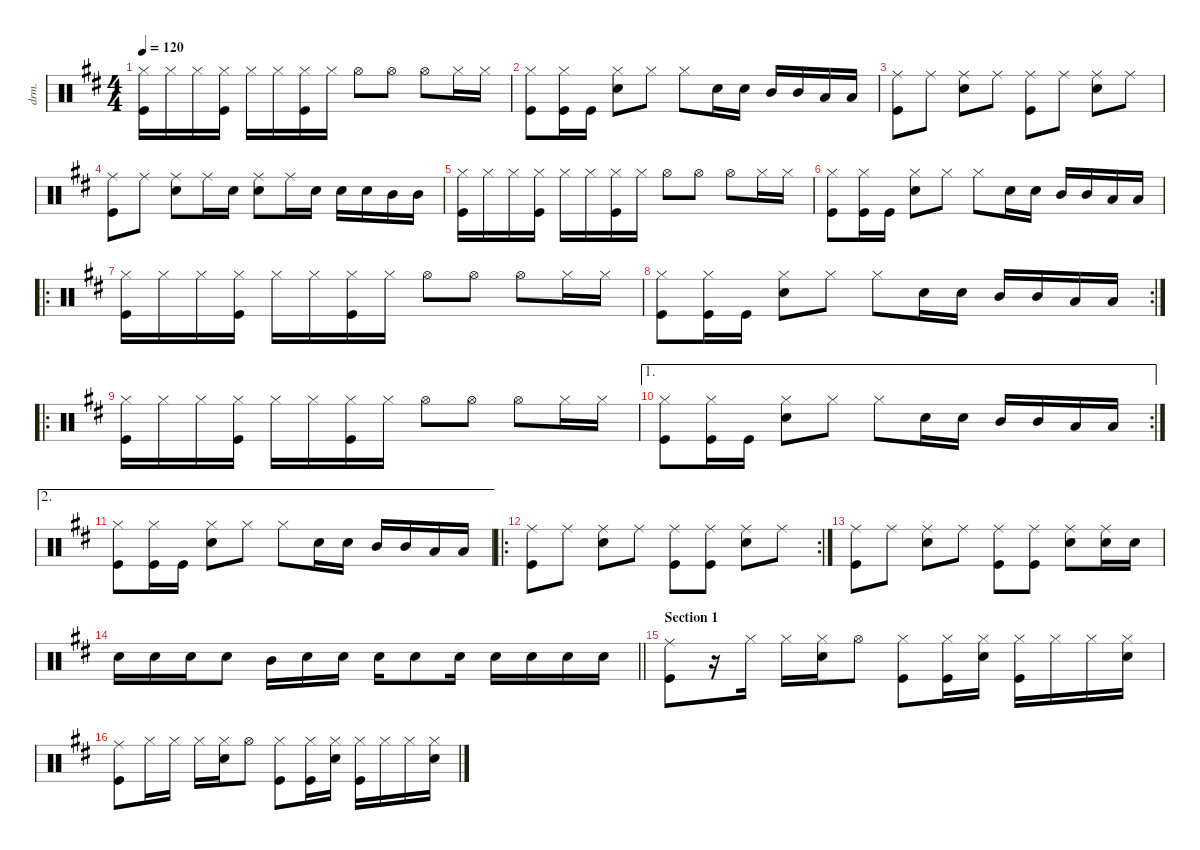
\defaultSystemsLayout 4
\hideDynamics
\bracketExtendMode nobrackets
\otherSystemsTrackNameOrientation horizontal
\track ("Drums" "drm.") {instrument percussion}
\staff {score}
\articulation defaults
\ts (4 4)
\tempo 120
\clef neutral
\ks d
("Hi-Hat (closed)"{acc forcenatural} "Kick (hit)"{acc forcenatural}).16{dy f} "Hi-Hat (closed)"{acc forcenatural}.16 "Hi-Hat (closed)"{acc forcenatural}.16 ("Hi-Hat (closed)"{acc forcenatural} "Kick (hit)"{acc forcenatural}).16 "Hi-Hat (closed)"{acc forcenatural}.16 "Hi-Hat (closed)"{acc forcenatural}.16 ("Hi-Hat (closed)"{acc forcenatural} "Kick (hit)"{acc forcenatural}).16 "Hi-Hat (closed)"{acc forcenatural}.16 "Hi-Hat (open)"{acc forcenatural}.8 "Hi-Hat (open)"{acc forcenatural}.8 "Hi-Hat (open)"{acc forcenatural}.8 "Hi-Hat (closed)"{acc forcenatural}.16 "Hi-Hat (closed)"{acc forcenatural}.16 |
("Hi-Hat (closed)"{acc forcenatural} "Kick (hit)"{acc forcenatural}).8 ("Hi-Hat (closed)"{acc forcenatural} "Kick (hit)"{acc forcenatural}).16 "Kick (hit)"{acc forcenatural}.16 ("Hi-Hat (closed)"{acc forcenatural} "Snare (hit) 2"{acc forcenatural}).8 "Hi-Hat (closed)"{acc forcenatural}.8 "Hi-Hat (closed)"{acc forcenatural}.8 "Snare (hit) 2"{acc forcenatural}.16 "Snare (hit) 2"{acc forcenatural}.16 "Mid Tom (hit)"{acc forcenatural}.16 "Mid Tom (hit)"{acc forcenatural}.16 "Low Tom (hit)"{acc forcenatural}.16 "Low Tom (hit)"{acc forcenatural}.16 |
("Ride (middle)"{acc forcenatural} "Kick (hit)"{acc forcenatural}).8 "Ride (middle)"{acc forcenatural}.8 ("Ride (middle)"{acc forcenatural} "Snare (hit) 2"{acc forcenatural}).8 "Ride (middle)"{acc forcenatural}.8 ("Ride (middle)"{acc forcenatural} "Kick (hit)"{acc forcenatural}).8 "Ride (middle)"{acc forcenatural}.8 ("Ride (middle)"{acc forcenatural} "Snare (hit) 2"{acc forcenatural}).8 "Ride (middle)"{acc forcenatural}.8 |
("Ride (middle)"{acc forcenatural} "Kick (hit)"{acc forcenatural}).8 "Ride (middle)"{acc forcenatural}.8 ("Ride (middle)"{acc forcenatural} "Snare (hit) 2"{acc forcenatural}).8 "Ride (middle)"{acc forcenatural}.16 "Snare (hit) 2"{acc forcenatural}.16 ("Ride (middle)"{acc forcenatural} "Snare (hit) 2"{acc forcenatural}).8 "Ride (middle)"{acc forcenatural}.16 "Snare (hit) 2"{acc forcenatural}.16 "Snare (hit) 2"{acc forcenatural}.16 "Snare (hit) 2"{acc forcenatural}.16 "Mid Tom (hit)"{acc forcenatural}.16 "Mid Tom (hit)"{acc forcenatural}.16 |
("Hi-Hat (closed)"{acc forcenatural} "Kick (hit)"{acc forcenatural}).16 "Hi-Hat (closed)"{acc forcenatural}.16 "Hi-Hat (closed)"{acc forcenatural}.16 ("Hi-Hat (closed)"{acc forcenatural} "Kick (hit)"{acc forcenatural}).16 "Hi-Hat (closed)"{acc forcenatural}.16 "Hi-Hat (closed)"{acc forcenatural}.16 ("Hi-Hat (closed)"{acc forcenatural} "Kick (hit)"{acc forcenatural}).16 "Hi-Hat (closed)"{acc forcenatural}.16 "Hi-Hat (open)"{acc forcenatural}.8 "Hi-Hat (open)"{acc forcenatural}.8 "Hi-Hat (open)"{acc forcenatural}.8 "Hi-Hat (closed)"{acc forcenatural}.16 "Hi-Hat (closed)"{acc forcenatural}.16 |
("Hi-Hat (closed)"{acc forcenatural} "Kick (hit)"{acc forcenatural}).8 ("Hi-Hat (closed)"{acc forcenatural} "Kick (hit)"{acc forcenatural}).16 "Kick (hit)"{acc forcenatural}.16 ("Hi-Hat (closed)"{acc forcenatural} "Snare (hit) 2"{acc forcenatural}).8 "Hi-Hat (closed)"{acc forcenatural}.8 "Hi-Hat (closed)"{acc forcenatural}.8 "Snare (hit) 2"{acc forcenatural}.16 "Snare (hit) 2"{acc forcenatural}.16 "Mid Tom (hit)"{acc forcenatural}.16 "Mid Tom (hit)"{acc forcenatural}.16 "Low Tom (hit)"{acc forcenatural}.16 "Low Tom (hit)"{acc forcenatural}.16 |
\ro
("Hi-Hat (closed)"{acc forcenatural} "Kick (hit)"{acc forcenatural}).16 "Hi-Hat (closed)"{acc forcenatural}.16 "Hi-Hat (closed)"{acc forcenatural}.16 ("Hi-Hat (closed)"{acc forcenatural} "Kick (hit)"{acc forcenatural}).16 "Hi-Hat (closed)"{acc forcenatural}.16 "Hi-Hat (closed)"{acc forcenatural}.16 ("Hi-Hat (closed)"{acc forcenatural} "Kick (hit)"{acc forcenatural}).16 "Hi-Hat (closed)"{acc forcenatural}.16 "Hi-Hat (open)"{acc forcenatural}.8 "Hi-Hat (open)"{acc forcenatural}.8 "Hi-Hat (open)"{acc forcenatural}.8 "Hi-Hat (closed)"{acc forcenatural}.16 "Hi-Hat (closed)"{acc forcenatural}.16 |
\rc 2
("Hi-Hat (closed)"{acc forcenatural} "Kick (hit)"{acc forcenatural}).8 ("Hi-Hat (closed)"{acc forcenatural} "Kick (hit)"{acc forcenatural}).16 "Kick (hit)"{acc forcenatural}.16 ("Hi-Hat (closed)"{acc forcenatural} "Snare (hit) 2"{acc forcenatural}).8 "Hi-Hat (closed)"{acc forcenatural}.8 "Hi-Hat (closed)"{acc forcenatural}.8 "Snare (hit) 2"{acc forcenatural}.16 "Snare (hit) 2"{acc forcenatural}.16 "Mid Tom (hit)"{acc forcenatural}.16 "Mid Tom (hit)"{acc forcenatural}.16 "Low Tom (hit)"{acc forcenatural}.16 "Low Tom (hit)"{acc forcenatural}.16 |
\ro
("Hi-Hat (closed)"{acc forcenatural} "Kick (hit)"{acc forcenatural}).16 "Hi-Hat (closed)"{acc forcenatural}.16 "Hi-Hat (closed)"{acc forcenatural}.16 ("Hi-Hat (closed)"{acc forcenatural} "Kick (hit)"{acc forcenatural}).16 "Hi-Hat (closed)"{acc forcenatural}.16 "Hi-Hat (closed)"{acc forcenatural}.16 ("Hi-Hat (closed)"{acc forcenatural} "Kick (hit)"{acc forcenatural}).16 "Hi-Hat (closed)"{acc forcenatural}.16 "Hi-Hat (open)"{acc forcenatural}.8 "Hi-Hat (open)"{acc forcenatural}.8 "Hi-Hat (open)"{acc forcenatural}.8 "Hi-Hat (closed)"{acc forcenatural}.16 "Hi-Hat (closed)"{acc forcenatural}.16 |
\ae 1
\rc 2
("Hi-Hat (closed)"{acc forcenatural} "Kick (hit)"{acc forcenatural}).8 ("Hi-Hat (closed)"{acc forcenatural} "Kick (hit)"{acc forcenatural}).16 "Kick (hit)"{acc forcenatural}.16 ("Hi-Hat (closed)"{acc forcenatural} "Snare (hit) 2"{acc forcenatural}).8 "Hi-Hat (closed)"{acc forcenatural}.8 "Hi-Hat (closed)"{acc forcenatural}.8 "Snare (hit) 2"{acc forcenatural}.16 "Snare (hit) 2"{acc forcenatural}.16 "Mid Tom (hit)"{acc forcenatural}.16 "Mid Tom (hit)"{acc forcenatural}.16 "Low Tom (hit)"{acc forcenatural}.16 "Low Tom (hit)"{acc forcenatural}.16 |
\ae 2
("Hi-Hat (closed)"{acc forcenatural} "Kick (hit)"{acc forcenatural}).8 ("Hi-Hat (closed)"{acc forcenatural} "Kick (hit)"{acc forcenatural}).16 "Kick (hit)"{acc forcenatural}.16 ("Hi-Hat (closed)"{acc forcenatural} "Snare (hit) 2"{acc forcenatural}).8 "Hi-Hat (closed)"{acc forcenatural}.8 "Hi-Hat (closed)"{acc forcenatural}.8 "Snare (hit) 2"{acc forcenatural}.16 "Snare (hit) 2"{acc forcenatural}.16 "Mid Tom (hit)"{acc forcenatural}.16 "Mid Tom (hit)"{acc forcenatural}.16 "Low Tom (hit)"{acc forcenatural}.16 "Low Tom (hit)"{acc forcenatural}.16 |
\ro
\rc 2
("Ride (middle)"{acc forcenatural} "Kick (hit)"{acc forcenatural}).8 "Ride (middle)"{acc forcenatural}.8 ("Ride (middle)"{acc forcenatural} "Snare (hit) 2"{acc forcenatural}).8 "Ride (middle)"{acc forcenatural}.8 ("Ride (middle)"{acc forcenatural} "Kick (hit)"{acc forcenatural}).8 ("Ride (middle)"{acc forcenatural} "Kick (hit)"{acc forcenatural}).8 ("Ride (middle)"{acc forcenatural} "Snare (hit) 2"{acc forcenatural}).8 "Ride (middle)"{acc forcenatural}.8 |
("Ride (middle)"{acc forcenatural} "Kick (hit)"{acc forcenatural}).8 "Ride (middle)"{acc forcenatural}.8 ("Ride (middle)"{acc forcenatural} "Snare (hit) 2"{acc forcenatural}).8 "Ride (middle)"{acc forcenatural}.8 ("Ride (middle)"{acc forcenatural} "Kick (hit)"{acc forcenatural}).8 ("Ride (middle)"{acc forcenatural} "Kick (hit)"{acc forcenatural}).8 ("Ride (middle)"{acc forcenatural} "Snare (hit) 2"{acc forcenatural}).8 ("Ride (middle)"{acc forcenatural} "Snare (hit) 2"{acc forcenatural}).16 "Snare (hit) 2"{acc forcenatural}.16 |
\barLineRight lightlight "Snare (hit) 2"{acc forcenatural}.16 "Snare (hit) 2"{acc forcenatural}.16 "Snare (hit) 2"{acc forcenatural}.16 "Snare (hit) 2"{acc forcenatural}.8 "Mid Tom (hit)"{acc forcenatural}.16 "Snare (hit) 2"{acc forcenatural}.16 "Snare (hit) 2"{acc forcenatural}.16 "Snare (hit) 2"{acc forcenatural}.16 "Snare (hit) 2"{acc forcenatural}.8 "Snare (hit) 2"{acc forcenatural}.16 "Snare (hit) 2"{acc forcenatural}.16 "Snare (hit) 2"{acc forcenatural}.16 "Snare (hit) 2"{acc forcenatural}.16 "Snare (hit) 2"{acc forcenatural}.16
|
\section ("" "Section 1")
("Ride (middle)"{acc forcenatural} "Kick (hit)"{acc forcenatural}).8 r.16 "Hi-Hat (closed)"{acc forcenatural}.16 "Hi-Hat (closed)"{acc forcenatural}.16 ("Hi-Hat (closed)"{acc forcenatural} "Snare (hit) 2"{acc forcenatural}).16 "Hi-Hat (open)"{acc forcenatural}.8 ("Hi-Hat (closed)"{acc forcenatural} "Kick (hit)"{acc forcenatural}).8 ("Hi-Hat (closed)"{acc forcenatural} "Kick (hit)"{acc forcenatural}).16 ("Hi-Hat (closed)"{acc forcenatural} "Snare (hit) 2"{acc forcenatural}).16 ("Hi-Hat (closed)"{acc forcenatural} "Kick (hit)"{acc forcenatural}).16 "Hi-Hat (closed)"{acc forcenatural}.16 "Hi-Hat (closed)"{acc forcenatural}.16 ("Hi-Hat (closed)"{acc forcenatural} "Snare (hit) 2"{acc forcenatural}).16 |
("Ride (middle)"{acc forcenatural} "Kick (hit)"{acc forcenatural}).8 "Hi-Hat (closed)"{acc forcenatural}.16 "Hi-Hat (closed)"{acc forcenatural}.16 "Hi-Hat (closed)"{acc forcenatural}.16 ("Hi-Hat (closed)"{acc forcenatural} "Snare (hit) 2"{acc forcenatural}).16 "Hi-Hat (open)"{acc forcenatural}.8 ("Hi-Hat (closed)"{acc forcenatural} "Kick (hit)"{acc forcenatural}).8 ("Hi-Hat (closed)"{acc forcenatural} "Kick (hit)"{acc forcenatural}).16 ("Hi-Hat (closed)"{acc forcenatural} "Snare (hit) 2"{acc forcenatural}).16 ("Hi-Hat (closed)"{acc forcenatural} "Kick (hit)"{acc forcenatural}).16 "Hi-Hat (closed)"{acc forcenatural}.16 "Hi-Hat (closed)"{acc forcenatural}.16 ("Hi-Hat (closed)"{acc forcenatural} "Snare (hit) 2"{acc forcenatural}).16
